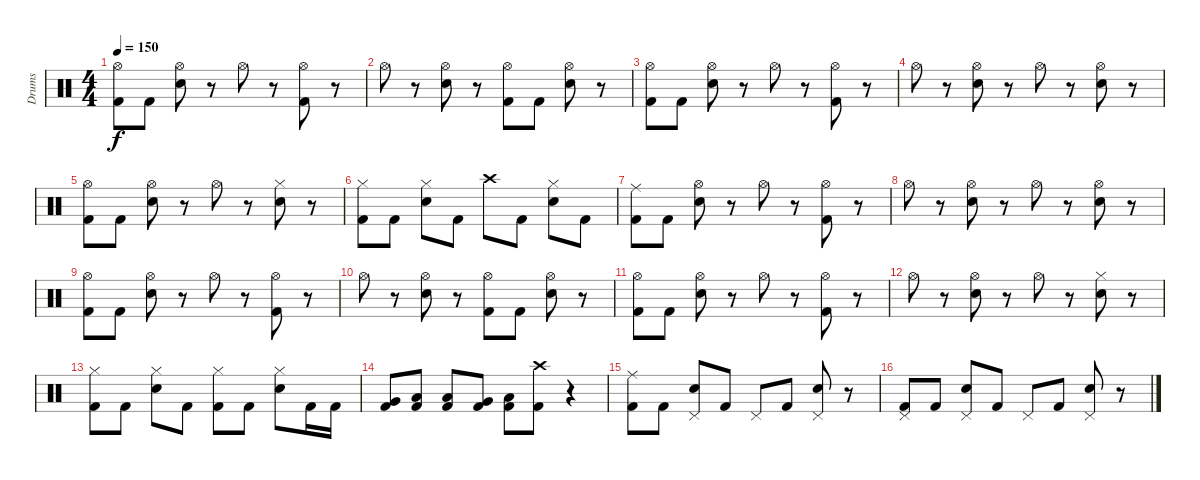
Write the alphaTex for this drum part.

\track ("Drums" "Drums") {instrument percussion}
\staff {score}
\articulation defaults
\ts (4 4)
\tempo 150
\clef neutral
\ks c
("Hi-Hat (open)" "Kick (hit) 2").8{dy f} "Kick (hit) 2".8 ("Hi-Hat (open)" "Electric Snare (hit)").8 r.8 "Hi-Hat (open)".8 r.8 ("Hi-Hat (open)" "Kick (hit) 2").8 r.8 |
"Hi-Hat (open)".8 r.8 ("Hi-Hat (open)" "Electric Snare (hit)").8 r.8 ("Hi-Hat (open)" "Kick (hit) 2").8 "Kick (hit) 2".8 ("Hi-Hat (open)" "Electric Snare (hit)").8 r.8 |
("Hi-Hat (open)" "Kick (hit) 2").8 "Kick (hit) 2".8 ("Hi-Hat (open)" "Electric Snare (hit)").8 r.8 "Hi-Hat (open)".8 r.8 ("Hi-Hat (open)" "Kick (hit) 2").8 r.8 |
"Hi-Hat (open)".8 r.8 ("Hi-Hat (open)" "Electric Snare (hit)").8 r.8 "Hi-Hat (open)".8 r.8 ("Hi-Hat (open)" "Electric Snare (hit)").8 r.8 |
("Hi-Hat (open)" "Kick (hit) 2").8 "Kick (hit) 2".8 ("Hi-Hat (open)" "Electric Snare (hit)").8 r.8 "Hi-Hat (open)".8 r.8 ("Hi-Hat (closed)" "Electric Snare (hit)").8 r.8 |
("Hi-Hat (closed)" "Kick (hit) 2").8 "Kick (hit) 2".8 ("Hi-Hat (closed)" "Electric Snare (hit)").8 "Kick (hit) 2".8 "Crash high (hit)".8 "Kick (hit) 2".8 ("Hi-Hat (closed)" "Electric Snare (hit)").8 "Kick (hit) 2".8 |
("Ride (middle)" "Kick (hit) 2").8 "Kick (hit) 2".8 ("Hi-Hat (open)" "Electric Snare (hit)").8 r.8 "Hi-Hat (open)".8 r.8 ("Hi-Hat (open)" "Kick (hit) 2").8 r.8 |
"Hi-Hat (open)".8 r.8 ("Hi-Hat (open)" "Electric Snare (hit)").8 r.8 "Hi-Hat (open)".8 r.8 ("Hi-Hat (open)" "Electric Snare (hit)").8 r.8 |
("Hi-Hat (open)" "Kick (hit) 2").8 "Kick (hit) 2".8 ("Hi-Hat (open)" "Electric Snare (hit)").8 r.8 "Hi-Hat (open)".8 r.8 ("Hi-Hat (open)" "Kick (hit) 2").8 r.8 |
"Hi-Hat (open)".8 r.8 ("Hi-Hat (open)" "Electric Snare (hit)").8 r.8 ("Hi-Hat (open)" "Kick (hit) 2").8 "Kick (hit) 2".8 ("Hi-Hat (open)" "Electric Snare (hit)").8 r.8 |
("Hi-Hat (open)" "Kick (hit) 2").8 "Kick (hit) 2".8 ("Hi-Hat (open)" "Electric Snare (hit)").8 r.8 "Hi-Hat (open)".8 r.8 ("Hi-Hat (open)" "Kick (hit) 2").8 r.8 |
"Hi-Hat (open)".8 r.8 ("Hi-Hat (open)" "Electric Snare (hit)").8 r.8 "Hi-Hat (open)".8 r.8 ("Hi-Hat (closed)" "Electric Snare (hit)").8 r.8 |
("Hi-Hat (closed)" "Kick (hit) 2").8 "Kick (hit) 2".8 ("Hi-Hat (closed)" "Electric Snare (hit)").8 "Kick (hit) 2".8 ("Hi-Hat (closed)" "Kick (hit) 2").8 "Kick (hit) 2".8 ("Hi-Hat (closed)" "Electric Snare (hit)").8 "Kick (hit) 2".16 "Kick (hit) 2".16 |
("Very Low Tom (hit)" "Kick (hit) 2").8 ("Low Floor Tom (hit)" "Kick (hit) 2").8 ("Low Floor Tom (hit)" "Kick (hit) 2").8 ("Very Low Tom (hit)" "Kick (hit) 2").8 ("Low Floor Tom (hit)" "Kick (hit) 2").8 ("Crash high (hit)" "Kick (hit) 2").8 r.4 |
("Ride (middle)" "Kick (hit) 2").8 "Kick (hit) 2".8 ("Pedal Hi-Hat (hit)" "Electric Snare (hit)").8 "Kick (hit) 2".8 "Pedal Hi-Hat (hit)".8 "Kick (hit) 2".8 ("Pedal Hi-Hat (hit)" "Electric Snare (hit)").8 r.8 |
("Pedal Hi-Hat (hit)" "Kick (hit) 2").8 "Kick (hit) 2".8 ("Pedal Hi-Hat (hit)" "Electric Snare (hit)").8 "Kick (hit) 2".8 "Pedal Hi-Hat (hit)".8 "Kick (hit) 2".8 ("Pedal Hi-Hat (hit)" "Electric Snare (hit)").8 r.8
